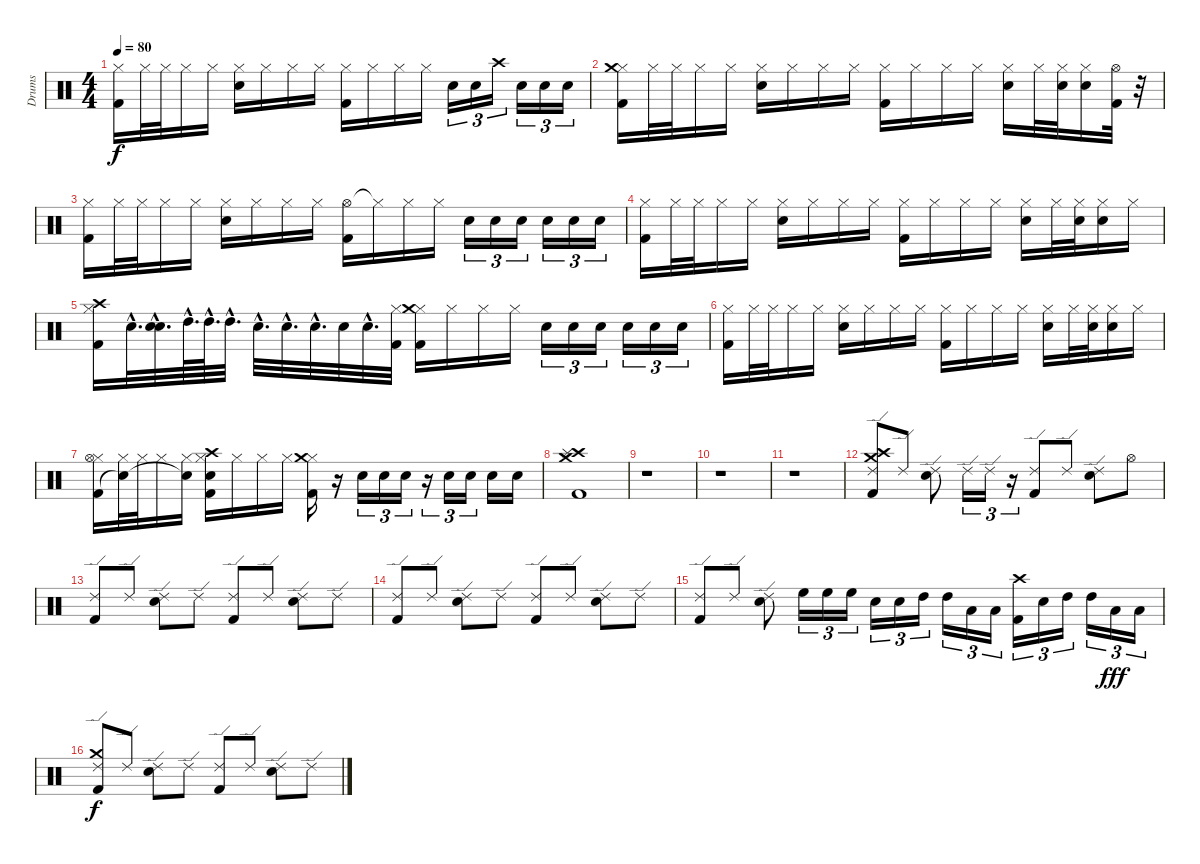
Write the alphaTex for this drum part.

\track ("Drums" "Drums") {instrument percussion}
\staff {score}
\articulation defaults
\ts (4 4)
\tempo 80
\clef neutral
\ks c
("Hi-Hat (closed)" "Kick (hit) 2").16{dy f} "Hi-Hat (closed)".32 "Hi-Hat (closed)".32 "Hi-Hat (closed)".16 "Hi-Hat (closed)".16 ("Hi-Hat (closed)" "Snare (hit) 2").16 "Hi-Hat (closed)".16 "Hi-Hat (closed)".16 "Hi-Hat (closed)".16 ("Hi-Hat (closed)" "Kick (hit) 2").16 "Hi-Hat (closed)".16 "Hi-Hat (closed)".16 "Hi-Hat (closed)".16 "Snare (hit) 2".16{tu (3 2)} "Snare (hit) 2".16{tu (3 2)} "Crash high (hit)".16{tu (3 2)} "Snare (hit) 2".16{tu (3 2)} "Snare (hit) 2".16{tu (3 2)} "Snare (hit) 2".16{tu (3 2)} |
("Hi-Hat (closed)" "Kick (hit) 2" "Crash medium (hit)").16 "Hi-Hat (closed)".32 "Hi-Hat (closed)".32 "Hi-Hat (closed)".16 "Hi-Hat (closed)".16 ("Hi-Hat (closed)" "Snare (hit) 2").16 "Hi-Hat (closed)".16 "Hi-Hat (closed)".16 "Hi-Hat (closed)".16 ("Hi-Hat (closed)" "Kick (hit) 2").16 "Hi-Hat (closed)".16 "Hi-Hat (closed)".16 "Hi-Hat (closed)".16 ("Hi-Hat (closed)" "Snare (hit) 2").16 "Hi-Hat (closed)".32 ("Hi-Hat (closed)" "Snare (hit) 2").32 ("Hi-Hat (closed)" "Snare (hit) 2").16 ("Hi-Hat (open)" "Kick (hit) 2").32 r.32 |
("Hi-Hat (closed)" "Kick (hit) 2").16 "Hi-Hat (closed)".32 "Hi-Hat (closed)".32 "Hi-Hat (closed)".16 "Hi-Hat (closed)".16 ("Hi-Hat (closed)" "Snare (hit) 2").16 "Hi-Hat (closed)".16 "Hi-Hat (closed)".16 "Hi-Hat (closed)".16 ("Hi-Hat (open)" "Kick (hit) 2").16 "Hi-Hat (closed)"{t}.16 "Hi-Hat (closed)".16 "Hi-Hat (closed)".16 "Snare (hit) 2".16{tu (3 2)} "Snare (hit) 2".16{tu (3 2)} "Snare (hit) 2".16{tu (3 2)} "Snare (hit) 2".16{tu (3 2)} "Snare (hit) 2".16{tu (3 2)} "Snare (hit) 2".16{tu (3 2)} |
("Hi-Hat (closed)" "Kick (hit) 2").16 "Hi-Hat (closed)".32 "Hi-Hat (closed)".32 "Hi-Hat (closed)".16 "Hi-Hat (closed)".16 ("Hi-Hat (closed)" "Snare (hit) 2").16 "Hi-Hat (closed)".16 "Hi-Hat (closed)".16 "Hi-Hat (closed)".16 ("Hi-Hat (closed)" "Kick (hit) 2").16 "Hi-Hat (closed)".16 "Hi-Hat (closed)".16 "Hi-Hat (closed)".16 ("Hi-Hat (closed)" "Snare (hit) 2").16 "Hi-Hat (closed)".32 ("Hi-Hat (closed)" "Snare (hit) 2").32 ("Hi-Hat (closed)" "Snare (hit) 2").16 "Hi-Hat (closed)".16 |
("Hi-Hat (closed)" "Kick (hit) 2" "Crash high (hit)").16 "Snare (hit) 2"{hac}.32{d} ("Snare (hit) 2"{hac} "Snare (hit) 2"{hac}).32{d} "High Tom (hit)"{hac}.64{d} "High Tom (hit)"{hac}.64{d} "High Tom (hit)"{hac}.32{d} "Snare (hit) 2"{hac}.32{d} "Snare (hit) 2"{hac}.32{d} "Snare (hit) 2"{hac}.32{d} "Snare (hit) 2".32 "Snare (hit) 2"{hac}.32{d} ("Hi-Hat (closed)" "Kick (hit) 2").32 ("Hi-Hat (closed)" "Kick (hit) 2" "Crash medium (hit)").16 "Hi-Hat (closed)".16 "Hi-Hat (closed)".16 "Hi-Hat (closed)".16 "Snare (hit) 2".16{tu (3 2)} "Snare (hit) 2".16{tu (3 2)} "Snare (hit) 2".16{tu (3 2)} "Snare (hit) 2".16{tu (3 2)} "Snare (hit) 2".16{tu (3 2)} "Snare (hit) 2".16{tu (3 2)} |
("Hi-Hat (closed)" "Kick (hit) 2").16 "Hi-Hat (closed)".32 "Hi-Hat (closed)".32 "Hi-Hat (closed)".16 "Hi-Hat (closed)".16 ("Hi-Hat (closed)" "Snare (hit) 2").16 "Hi-Hat (closed)".16 "Hi-Hat (closed)".16 "Hi-Hat (closed)".16 ("Hi-Hat (closed)" "Kick (hit) 2").16 "Hi-Hat (closed)".16 "Hi-Hat (closed)".16 "Hi-Hat (closed)".16 ("Hi-Hat (closed)" "Snare (hit) 2").16 "Hi-Hat (closed)".32 ("Hi-Hat (closed)" "Snare (hit) 2").32 ("Hi-Hat (closed)" "Snare (hit) 2").16 "Hi-Hat (closed)".16 |
("Hi-Hat (closed)" "Kick (hit) 2" "Hi-Hat (open)").16 ("Hi-Hat (closed)" "Snare (hit)"{t}).32 "Hi-Hat (closed)".32 "Hi-Hat (closed)".16 ("Hi-Hat (closed)" "Snare (hit)"{t}).16 ("Hi-Hat (closed)" "Snare (hit) 2" "Crash high (hit)" "Kick (hit) 2").16 "Hi-Hat (closed)".16 "Hi-Hat (closed)".16 "Hi-Hat (closed)".16 ("Hi-Hat (closed)" "Kick (hit) 2" "Crash medium (hit)").16 r.16 "Snare (hit) 2".16{tu (3 2)} "Snare (hit) 2".16{tu (3 2)} "Snare (hit) 2".16{tu (3 2)} r.16{tu (3 2)} "Snare (hit) 2".16{tu (3 2)} "Snare (hit) 2".16{tu (3 2)} "Snare (hit) 2".16 "Snare (hit) 2".16 |
("Crash high (hit)" "Crash medium (hit)" "Splash (hit)" "Kick (hit) 2").1 |
r.1 |
r.1 |
r.1 |
("Ride (edge) 2" "Kick (hit) 2" "Crash medium (hit)" "Crash high (hit)").8 "Ride (edge) 2".8 ("Ride (edge) 2" "Snare (hit) 2").8 "Ride (edge) 2".16{tu (3 2)} "Ride (edge) 2".16{tu (3 2)} r.16{tu (3 2)} ("Ride (edge) 2" "Kick (hit) 2").8 "Ride (edge) 2".8 ("Ride (edge) 2" "Snare (hit) 2").8 "Hi-Hat (open)".8 |
("Ride (edge) 2" "Kick (hit) 2").8 "Ride (edge) 2".8 ("Ride (edge) 2" "Snare (hit) 2").8 "Ride (edge) 2".8 ("Ride (edge) 2" "Kick (hit) 2").8 "Ride (edge) 2".8 ("Ride (edge) 2" "Snare (hit) 2").8 "Ride (edge) 2".8 |
("Ride (edge) 2" "Kick (hit) 2").8 "Ride (edge) 2".8 ("Ride (edge) 2" "Snare (hit) 2").8 "Ride (edge) 2".8 ("Ride (edge) 2" "Kick (hit) 2").8 "Ride (edge) 2".8 ("Ride (edge) 2" "Snare (hit) 2").8 "Ride (edge) 2".8 |
("Ride (edge) 2" "Kick (hit) 2").8 "Ride (edge) 2".8 ("Ride (edge) 2" "Snare (hit) 2").8 "High Floor Tom (hit)".16{tu (3 2)} "High Floor Tom (hit)".16{tu (3 2)} "High Floor Tom (hit)".16{tu (3 2)} "Snare (hit) 2".16{tu (3 2)} "Snare (hit) 2".16{tu (3 2)} "High Tom (hit)".16{tu (3 2)} "High Tom (hit)".16{tu (3 2)} "Low Tom (hit)".16{tu (3 2)} "Low Tom (hit)".16{tu (3 2)} ("Crash high (hit)" "Kick (hit) 2").16{tu (3 2)} "Snare (hit) 2".16{tu (3 2)} "High Tom (hit)".16{tu (3 2)} "High Tom (hit)".16{tu (3 2)} "Low Tom (hit)".16{tu (3 2) dy fff} "Low Tom (hit)".16{tu (3 2)} |
("Ride (edge) 2" "Kick (hit) 2" "Crash medium (hit)").8{dy f} "Ride (edge) 2".8 ("Ride (edge) 2" "Snare (hit) 2").8 "Ride (edge) 2".8 ("Ride (edge) 2" "Kick (hit) 2").8 "Ride (edge) 2".8 ("Ride (edge) 2" "Snare (hit) 2").8 "Ride (edge) 2".8
